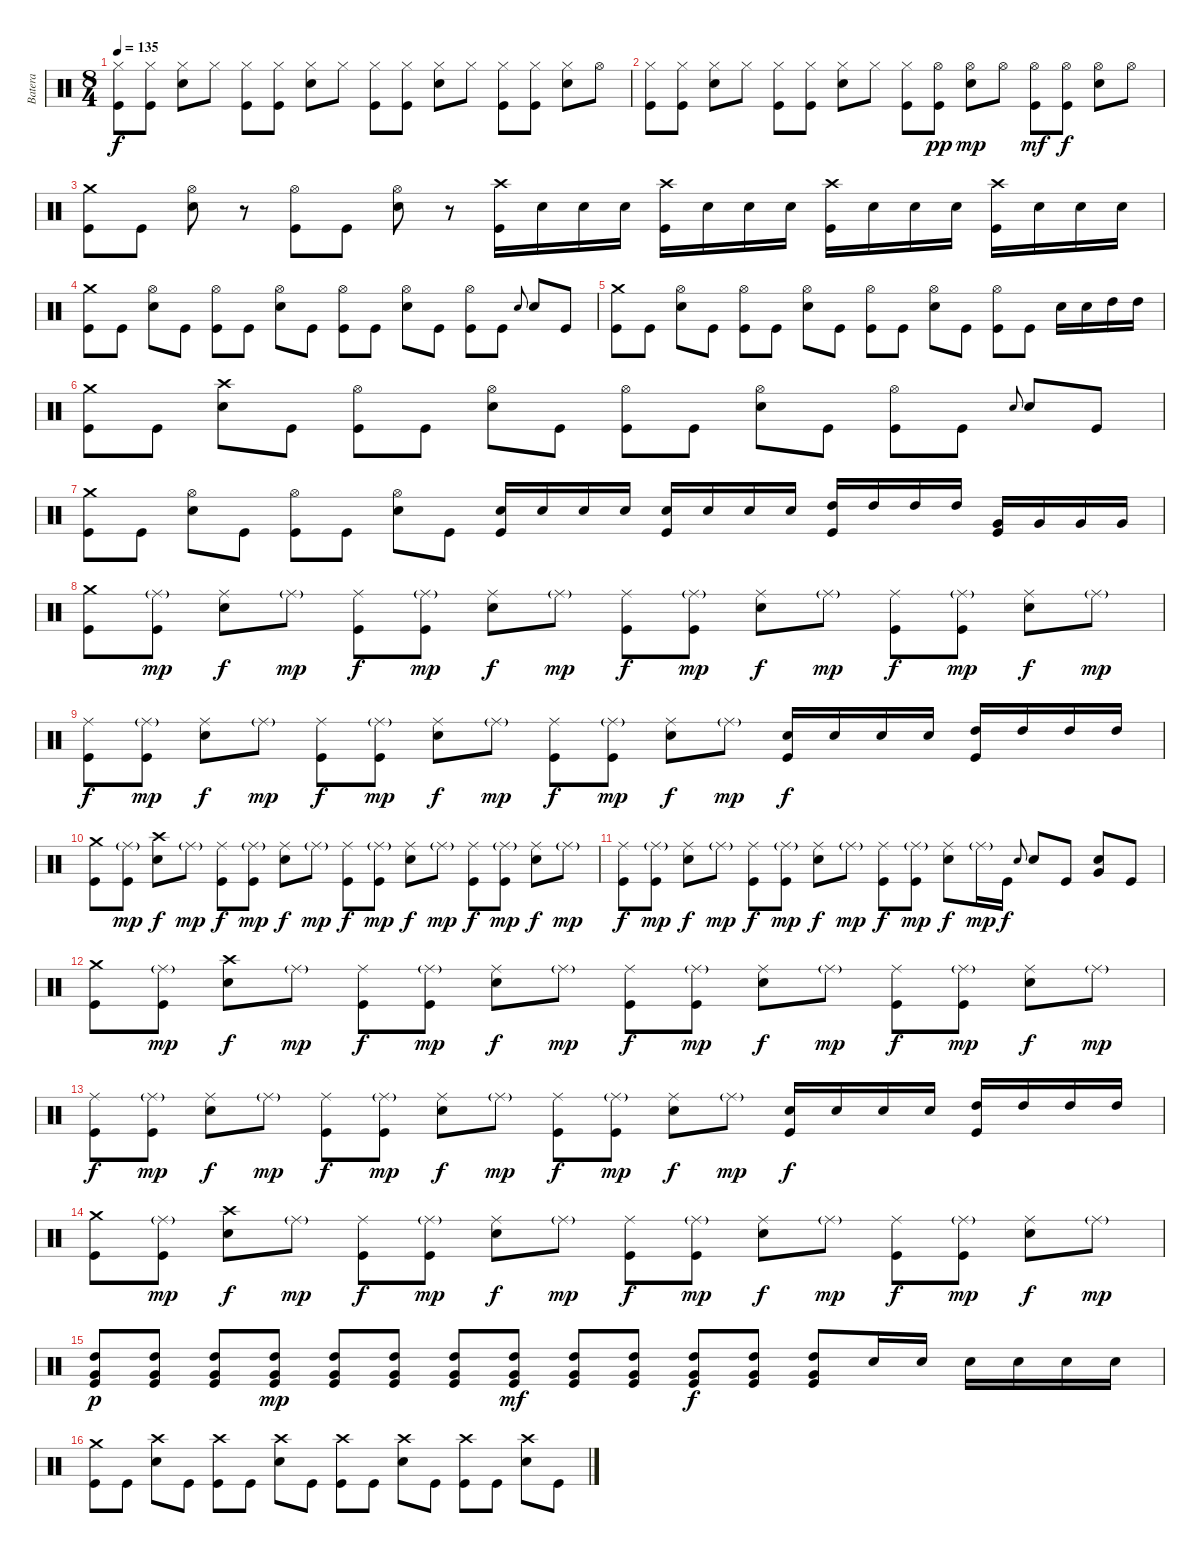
\track ("Batera" "Batera") {instrument percussion}
\staff {score}
\articulation defaults
\ts (8 4)
\tempo 135
\clef neutral
\ks c
("Kick (hit)" "Hi-Hat (closed)").8{dy f} ("Hi-Hat (closed)" "Kick (hit)").8 ("Snare (hit) 2" "Hi-Hat (closed)").8 "Hi-Hat (closed)".8 ("Kick (hit)" "Hi-Hat (closed)").8 ("Kick (hit)" "Hi-Hat (closed)").8 ("Snare (hit) 2" "Hi-Hat (closed)").8 "Hi-Hat (closed)".8 ("Kick (hit)" "Hi-Hat (closed)").8 ("Kick (hit)" "Hi-Hat (closed)").8 ("Snare (hit) 2" "Hi-Hat (closed)").8 "Hi-Hat (closed)".8 ("Kick (hit)" "Hi-Hat (closed)").8 ("Kick (hit)" "Hi-Hat (closed)").8 ("Snare (hit) 2" "Hi-Hat (closed)").8 "Hi-Hat (open)".8 |
("Kick (hit)" "Hi-Hat (closed)").8 ("Hi-Hat (closed)" "Kick (hit)").8 ("Snare (hit) 2" "Hi-Hat (closed)").8 "Hi-Hat (closed)".8 ("Kick (hit)" "Hi-Hat (closed)").8 ("Kick (hit)" "Hi-Hat (closed)").8 ("Snare (hit) 2" "Hi-Hat (closed)").8 "Hi-Hat (closed)".8 ("Kick (hit)" "Hi-Hat (closed)").8 ("Kick (hit)" "Hi-Hat (open)").8{dy pp} ("Snare (hit) 2" "Hi-Hat (open)").8{dy mp} "Hi-Hat (open)".8 ("Kick (hit)" "Hi-Hat (open)").8{dy mf} ("Kick (hit)" "Hi-Hat (open)").8{dy f} ("Snare (hit) 2" "Hi-Hat (open)").8 "Hi-Hat (open)".8 |
("Kick (hit)" "Crash medium (hit)").8 "Kick (hit)".8 ("Snare (hit) 2" "Hi-Hat (open)").8 r.8 ("Kick (hit)" "Hi-Hat (open)").8 "Kick (hit)".8 ("Snare (hit) 2" "Hi-Hat (open)").8 r.8 ("Crash high (hit)" "Kick (hit)").16 "Snare (hit) 2".16 "Snare (hit) 2".16 "Snare (hit) 2".16 ("Kick (hit)" "Crash high (hit)").16 "Snare (hit) 2".16 "Snare (hit) 2".16 "Snare (hit) 2".16 ("Kick (hit)" "Crash high (hit)").16 "Snare (hit) 2".16 "Snare (hit) 2".16 "Snare (hit) 2".16 ("Kick (hit)" "Crash high (hit)").16 "Snare (hit) 2".16 "Snare (hit) 2".16 "Snare (hit) 2".16 |
("Kick (hit)" "Crash medium (hit)").8 "Kick (hit)".8 ("Snare (hit) 2" "Hi-Hat (open)").8 "Kick (hit)".8 ("Kick (hit)" "Hi-Hat (open)").8 "Kick (hit)".8 ("Snare (hit) 2" "Hi-Hat (open)").8 "Kick (hit)".8 ("Kick (hit)" "Hi-Hat (open)").8 "Kick (hit)".8 ("Snare (hit) 2" "Hi-Hat (open)").8 "Kick (hit)".8 ("Kick (hit)" "Hi-Hat (open)").8 "Kick (hit)".8 "Snare (hit) 2".8{gr onbeat} "Snare (hit) 2".8 "Kick (hit)".8 |
("Kick (hit)" "Crash medium (hit)").8 "Kick (hit)".8 ("Snare (hit) 2" "Hi-Hat (open)").8 "Kick (hit)".8 ("Kick (hit)" "Hi-Hat (open)").8 "Kick (hit)".8 ("Snare (hit) 2" "Hi-Hat (open)").8 "Kick (hit)".8 ("Kick (hit)" "Hi-Hat (open)").8 "Kick (hit)".8 ("Snare (hit) 2" "Hi-Hat (open)").8 "Kick (hit)".8 ("Kick (hit)" "Hi-Hat (open)").8 "Kick (hit)".8 "Snare (hit) 2".16 "Snare (hit) 2".16 "High Tom (hit)".16 "High Tom (hit)".16 |
("Kick (hit)" "Crash medium (hit)").8 "Kick (hit)".8 ("Snare (hit) 2" "Crash high (hit)").8 "Kick (hit)".8 ("Kick (hit)" "Hi-Hat (open)").8 "Kick (hit)".8 ("Snare (hit) 2" "Hi-Hat (open)").8 "Kick (hit)".8 ("Kick (hit)" "Hi-Hat (open)").8 "Kick (hit)".8 ("Snare (hit) 2" "Hi-Hat (open)").8 "Kick (hit)".8 ("Kick (hit)" "Hi-Hat (open)").8 "Kick (hit)".8 "Snare (hit) 2".8{gr onbeat} "Snare (hit) 2".8 "Kick (hit)".8 |
("Crash medium (hit)" "Kick (hit)").8 "Kick (hit)".8 ("Snare (hit) 2" "Hi-Hat (open)").8 "Kick (hit)".8 ("Kick (hit)" "Hi-Hat (open)").8 "Kick (hit)".8 ("Snare (hit) 2" "Hi-Hat (open)").8 "Kick (hit)".8 ("Snare (hit) 2" "Kick (hit)").16 "Snare (hit) 2".16 "Snare (hit) 2".16 "Snare (hit) 2".16 ("Snare (hit) 2" "Kick (hit)").16 "Snare (hit) 2".16 "Snare (hit) 2".16 "Snare (hit) 2".16 ("High Tom (hit)" "Kick (hit)").16 "High Tom (hit)".16 "High Tom (hit)".16 "High Tom (hit)".16 ("Very Low Tom (hit)" "Kick (hit)").16 "Very Low Tom (hit)".16 "Very Low Tom (hit)".16 "Very Low Tom (hit)".16 |
("Kick (hit)" "Crash medium (hit)").8 ("Kick (hit)" "Ride (middle)"{g}).8{dy mp} ("Snare (hit) 2" "Ride (middle)").8{dy f} "Ride (middle)"{g}.8{dy mp} ("Kick (hit)" "Ride (middle)").8{dy f} ("Kick (hit)" "Ride (middle)"{g}).8{dy mp} ("Snare (hit) 2" "Ride (middle)").8{dy f} "Ride (middle)"{g}.8{dy mp} ("Kick (hit)" "Ride (middle)").8{dy f} ("Kick (hit)" "Ride (middle)"{g}).8{dy mp} ("Snare (hit) 2" "Ride (middle)").8{dy f} "Ride (middle)"{g}.8{dy mp} ("Kick (hit)" "Ride (middle)").8{dy f} ("Kick (hit)" "Ride (middle)"{g}).8{dy mp} ("Ride (middle)" "Snare (hit) 2").8{dy f} "Ride (middle)"{g}.8{dy mp} |
("Kick (hit)" "Ride (middle)").8{dy f} ("Kick (hit)" "Ride (middle)"{g}).8{dy mp} ("Snare (hit) 2" "Ride (middle)").8{dy f} "Ride (middle)"{g}.8{dy mp} ("Kick (hit)" "Ride (middle)").8{dy f} ("Kick (hit)" "Ride (middle)"{g}).8{dy mp} ("Snare (hit) 2" "Ride (middle)").8{dy f} "Ride (middle)"{g}.8{dy mp} ("Kick (hit)" "Ride (middle)").8{dy f} ("Kick (hit)" "Ride (middle)"{g}).8{dy mp} ("Snare (hit) 2" "Ride (middle)").8{dy f} "Ride (middle)"{g}.8{dy mp} ("Snare (hit) 2" "Kick (hit)").16{dy f} "Snare (hit) 2".16 "Snare (hit) 2".16 "Snare (hit) 2".16 ("High Tom (hit)" "Kick (hit)").16 "High Tom (hit)".16 "High Tom (hit)".16 "High Tom (hit)".16 |
("Kick (hit)" "Crash medium (hit)").8 ("Kick (hit)" "Ride (middle)"{g}).8{dy mp} ("Snare (hit) 2" "Crash high (hit)").8{dy f} "Ride (middle)"{g}.8{dy mp} ("Kick (hit)" "Ride (middle)").8{dy f} ("Kick (hit)" "Ride (middle)"{g}).8{dy mp} ("Snare (hit) 2" "Ride (middle)").8{dy f} "Ride (middle)"{g}.8{dy mp} ("Kick (hit)" "Ride (middle)").8{dy f} ("Kick (hit)" "Ride (middle)"{g}).8{dy mp} ("Snare (hit) 2" "Ride (middle)").8{dy f} "Ride (middle)"{g}.8{dy mp} ("Kick (hit)" "Ride (middle)").8{dy f} ("Kick (hit)" "Ride (middle)"{g}).8{dy mp} ("Ride (middle)" "Snare (hit) 2").8{dy f} "Ride (middle)"{g}.8{dy mp} |
("Kick (hit)" "Ride (middle)").8{dy f} ("Kick (hit)" "Ride (middle)"{g}).8{dy mp} ("Snare (hit) 2" "Ride (middle)").8{dy f} "Ride (middle)"{g}.8{dy mp} ("Kick (hit)" "Ride (middle)").8{dy f} ("Kick (hit)" "Ride (middle)"{g}).8{dy mp} ("Snare (hit) 2" "Ride (middle)").8{dy f} "Ride (middle)"{g}.8{dy mp} ("Kick (hit)" "Ride (middle)").8{dy f} ("Kick (hit)" "Ride (middle)"{g}).8{dy mp} ("Snare (hit) 2" "Ride (middle)").8{dy f} "Ride (middle)"{g}.16{dy mp} "Kick (hit)".16{dy f} "Snare (hit) 2".8{gr onbeat} "Snare (hit) 2".8 "Kick (hit)".8 ("Snare (hit) 2" "Very Low Tom (hit)").8 "Kick (hit)".8 |
("Kick (hit)" "Crash medium (hit)").8 ("Kick (hit)" "Ride (middle)"{g}).8{dy mp} ("Snare (hit) 2" "Crash high (hit)").8{dy f} "Ride (middle)"{g}.8{dy mp} ("Kick (hit)" "Ride (middle)").8{dy f} ("Kick (hit)" "Ride (middle)"{g}).8{dy mp} ("Snare (hit) 2" "Ride (middle)").8{dy f} "Ride (middle)"{g}.8{dy mp} ("Kick (hit)" "Ride (middle)").8{dy f} ("Kick (hit)" "Ride (middle)"{g}).8{dy mp} ("Snare (hit) 2" "Ride (middle)").8{dy f} "Ride (middle)"{g}.8{dy mp} ("Kick (hit)" "Ride (middle)").8{dy f} ("Kick (hit)" "Ride (middle)"{g}).8{dy mp} ("Ride (middle)" "Snare (hit) 2").8{dy f} "Ride (middle)"{g}.8{dy mp} |
("Kick (hit)" "Ride (middle)").8{dy f} ("Kick (hit)" "Ride (middle)"{g}).8{dy mp} ("Snare (hit) 2" "Ride (middle)").8{dy f} "Ride (middle)"{g}.8{dy mp} ("Kick (hit)" "Ride (middle)").8{dy f} ("Kick (hit)" "Ride (middle)"{g}).8{dy mp} ("Snare (hit) 2" "Ride (middle)").8{dy f} "Ride (middle)"{g}.8{dy mp} ("Kick (hit)" "Ride (middle)").8{dy f} ("Kick (hit)" "Ride (middle)"{g}).8{dy mp} ("Snare (hit) 2" "Ride (middle)").8{dy f} "Ride (middle)"{g}.8{dy mp} ("Snare (hit) 2" "Kick (hit)").16{dy f} "Snare (hit) 2".16 "Snare (hit) 2".16 "Snare (hit) 2".16 ("High Tom (hit)" "Kick (hit)").16 "High Tom (hit)".16 "High Tom (hit)".16 "High Tom (hit)".16 |
("Kick (hit)" "Crash medium (hit)").8 ("Kick (hit)" "Ride (middle)"{g}).8{dy mp} ("Snare (hit) 2" "Crash high (hit)").8{dy f} "Ride (middle)"{g}.8{dy mp} ("Kick (hit)" "Ride (middle)").8{dy f} ("Kick (hit)" "Ride (middle)"{g}).8{dy mp} ("Snare (hit) 2" "Ride (middle)").8{dy f} "Ride (middle)"{g}.8{dy mp} ("Kick (hit)" "Ride (middle)").8{dy f} ("Kick (hit)" "Ride (middle)"{g}).8{dy mp} ("Snare (hit) 2" "Ride (middle)").8{dy f} "Ride (middle)"{g}.8{dy mp} ("Kick (hit)" "Ride (middle)").8{dy f} ("Kick (hit)" "Ride (middle)"{g}).8{dy mp} ("Ride (middle)" "Snare (hit) 2").8{dy f} "Ride (middle)"{g}.8{dy mp} |
("Kick (hit)" "Very Low Tom (hit)" "High Tom (hit)").8{dy p} ("Kick (hit)" "Very Low Tom (hit)" "High Tom (hit)").8 ("Kick (hit)" "Very Low Tom (hit)" "High Tom (hit)").8 ("Kick (hit)" "Very Low Tom (hit)" "High Tom (hit)").8{dy mp} ("Kick (hit)" "Very Low Tom (hit)" "High Tom (hit)").8 ("Kick (hit)" "Very Low Tom (hit)" "High Tom (hit)").8 ("Kick (hit)" "Very Low Tom (hit)" "High Tom (hit)").8 ("Kick (hit)" "Very Low Tom (hit)" "High Tom (hit)").8{dy mf} ("Kick (hit)" "Very Low Tom (hit)" "High Tom (hit)").8 ("Kick (hit)" "Very Low Tom (hit)" "High Tom (hit)").8 ("Kick (hit)" "Very Low Tom (hit)" "High Tom (hit)").8{dy f} ("Kick (hit)" "Very Low Tom (hit)" "High Tom (hit)").8 ("Kick (hit)" "Very Low Tom (hit)" "High Tom (hit)").8 "Snare (hit) 2".16 "Snare (hit) 2".16 "Snare (hit) 2".16 "Snare (hit) 2".16 "Snare (hit) 2".16 "Snare (hit) 2".16 |
("Kick (hit)" "Crash medium (hit)").8 "Kick (hit)".8 ("Snare (hit) 2" "Crash high (hit)").8 "Kick (hit)".8 ("Kick (hit)" "Crash high (hit)").8 "Kick (hit)".8 ("Snare (hit) 2" "Crash high (hit)").8 "Kick (hit)".8 ("Kick (hit)" "Crash high (hit)").8 "Kick (hit)".8 ("Snare (hit) 2" "Crash high (hit)").8 "Kick (hit)".8 ("Kick (hit)" "Crash high (hit)").8 "Kick (hit)".8 ("Snare (hit) 2" "Crash high (hit)").8 "Kick (hit)".8
